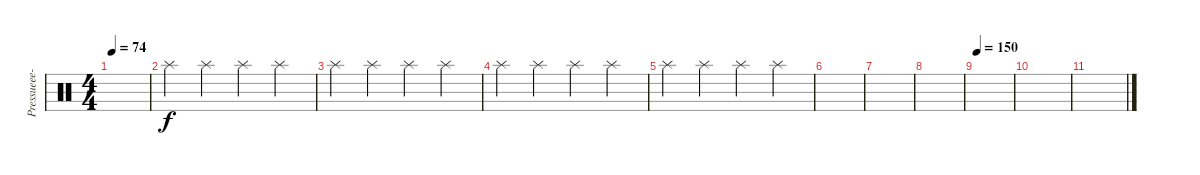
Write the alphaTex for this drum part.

\track ("" "Pressueee-") {instrument percussion}
\staff {score}
\articulation defaults
\ts (4 4)
\tempo 74
\clef neutral
\ks c
|
"Splash (hit)".4 "Splash (hit)".4 "Splash (hit)".4 "Splash (hit)".4 |
"Splash (hit)".4 "Splash (hit)".4 "Splash (hit)".4 "Splash (hit)".4 |
"Splash (hit)".4 "Splash (hit)".4 "Splash (hit)".4 "Splash (hit)".4 |
"Splash (hit)".4 "Splash (hit)".4 "Splash (hit)".4 "Splash (hit)".4 |
|
|
|
\tempo 150
|
|
\section ("" "")
